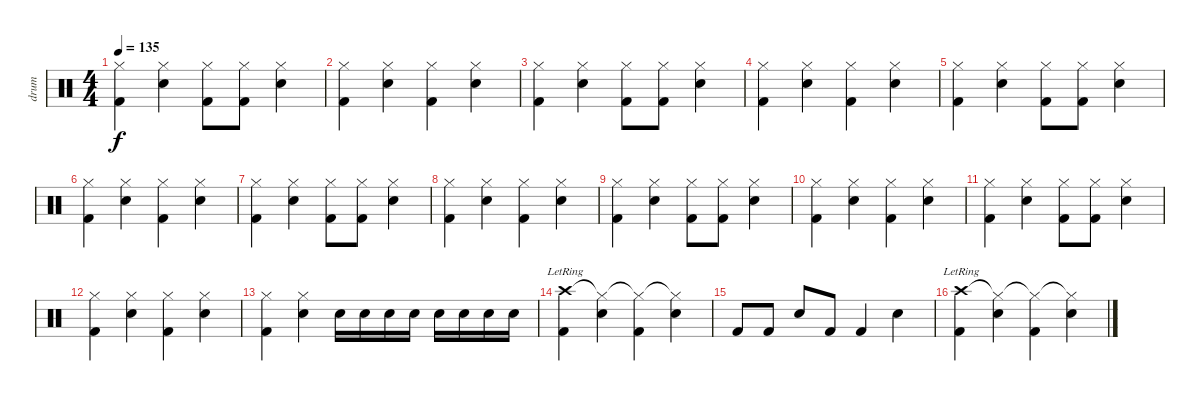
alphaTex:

\track ("drum" "drum") {instrument percussion}
\staff {score}
\articulation defaults
\ts (4 4)
\tempo 135
\clef neutral
\ks c
("Hi-Hat (closed)" "Kick (hit) 2").4{dy f} ("Hi-Hat (closed)" "Snare (hit) 2").4 ("Hi-Hat (closed)" "Kick (hit) 2").8 ("Hi-Hat (closed)" "Kick (hit) 2").8 ("Hi-Hat (closed)" "Snare (hit) 2").4 |
("Hi-Hat (closed)" "Kick (hit) 2").4 ("Hi-Hat (closed)" "Snare (hit) 2").4 ("Hi-Hat (closed)" "Kick (hit) 2").4 ("Hi-Hat (closed)" "Snare (hit) 2").4 |
("Hi-Hat (closed)" "Kick (hit) 2").4 ("Hi-Hat (closed)" "Snare (hit) 2").4 ("Hi-Hat (closed)" "Kick (hit) 2").8 ("Hi-Hat (closed)" "Kick (hit) 2").8 ("Hi-Hat (closed)" "Snare (hit) 2").4 |
("Hi-Hat (closed)" "Kick (hit) 2").4 ("Hi-Hat (closed)" "Snare (hit) 2").4 ("Hi-Hat (closed)" "Kick (hit) 2").4 ("Hi-Hat (closed)" "Snare (hit) 2").4 |
("Hi-Hat (closed)" "Kick (hit) 2").4 ("Hi-Hat (closed)" "Snare (hit) 2").4 ("Hi-Hat (closed)" "Kick (hit) 2").8 ("Hi-Hat (closed)" "Kick (hit) 2").8 ("Hi-Hat (closed)" "Snare (hit) 2").4 |
("Hi-Hat (closed)" "Kick (hit) 2").4 ("Hi-Hat (closed)" "Snare (hit) 2").4 ("Hi-Hat (closed)" "Kick (hit) 2").4 ("Hi-Hat (closed)" "Snare (hit) 2").4 |
("Hi-Hat (closed)" "Kick (hit) 2").4 ("Hi-Hat (closed)" "Snare (hit) 2").4 ("Hi-Hat (closed)" "Kick (hit) 2").8 ("Hi-Hat (closed)" "Kick (hit) 2").8 ("Hi-Hat (closed)" "Snare (hit) 2").4 |
("Hi-Hat (closed)" "Kick (hit) 2").4 ("Hi-Hat (closed)" "Snare (hit) 2").4 ("Hi-Hat (closed)" "Kick (hit) 2").4 ("Hi-Hat (closed)" "Snare (hit) 2").4 |
("Hi-Hat (closed)" "Kick (hit) 2").4 ("Hi-Hat (closed)" "Snare (hit) 2").4 ("Hi-Hat (closed)" "Kick (hit) 2").8 ("Hi-Hat (closed)" "Kick (hit) 2").8 ("Hi-Hat (closed)" "Snare (hit) 2").4 |
("Hi-Hat (closed)" "Kick (hit) 2").4 ("Hi-Hat (closed)" "Snare (hit) 2").4 ("Hi-Hat (closed)" "Kick (hit) 2").4 ("Hi-Hat (closed)" "Snare (hit) 2").4 |
("Hi-Hat (closed)" "Kick (hit) 2").4 ("Hi-Hat (closed)" "Snare (hit) 2").4 ("Hi-Hat (closed)" "Kick (hit) 2").8 ("Hi-Hat (closed)" "Kick (hit) 2").8 ("Hi-Hat (closed)" "Snare (hit) 2").4 |
("Hi-Hat (closed)" "Kick (hit) 2").4 ("Hi-Hat (closed)" "Snare (hit) 2").4 ("Hi-Hat (closed)" "Kick (hit) 2").4 ("Hi-Hat (closed)" "Snare (hit) 2").4 |
("Hi-Hat (closed)" "Kick (hit) 2").4 ("Hi-Hat (closed)" "Snare (hit) 2").4 "Snare (hit) 2".16 "Snare (hit) 2".16 "Snare (hit) 2".16 "Snare (hit) 2".16 "Snare (hit) 2".16 "Snare (hit) 2".16 "Snare (hit) 2".16 "Snare (hit) 2".16 |
("Crash high (hit)"{lr} "Kick (hit) 2").4 ("Hi-Hat (closed)"{t} "Snare (hit) 2").4 ("Hi-Hat (closed)"{t} "Kick (hit) 2").4 ("Hi-Hat (closed)"{t} "Snare (hit) 2").4 |
"Kick (hit) 2".8 "Kick (hit) 2".8 "Snare (hit) 2".8 "Kick (hit) 2".8 "Kick (hit) 2".4 "Snare (hit) 2".4 |
("Crash high (hit)"{lr} "Kick (hit) 2").4 ("Hi-Hat (closed)"{t} "Snare (hit) 2").4 ("Hi-Hat (closed)"{t} "Kick (hit) 2").4 ("Hi-Hat (closed)"{t} "Snare (hit) 2").4
